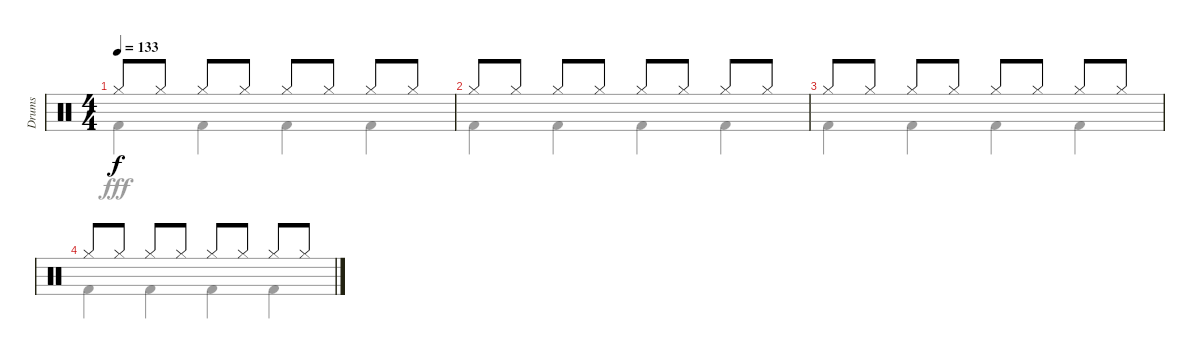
\track ("Drums" "Drums") {instrument percussion}
\staff {score}
\articulation defaults
\voice
\ts (4 4)
\tempo 133
\clef neutral
\ks c "Hi-Hat (closed)".8{dy f} "Hi-Hat (closed)".8 "Hi-Hat (closed)".8 "Hi-Hat (closed)".8 "Hi-Hat (closed)".8 "Hi-Hat (closed)".8 "Hi-Hat (closed)".8 "Hi-Hat (closed)".8
|
"Hi-Hat (closed)".8 "Hi-Hat (closed)".8 "Hi-Hat (closed)".8 "Hi-Hat (closed)".8 "Hi-Hat (closed)".8 "Hi-Hat (closed)".8 "Hi-Hat (closed)".8 "Hi-Hat (closed)".8 |
"Hi-Hat (closed)".8 "Hi-Hat (closed)".8 "Hi-Hat (closed)".8 "Hi-Hat (closed)".8 "Hi-Hat (closed)".8 "Hi-Hat (closed)".8 "Hi-Hat (closed)".8 "Hi-Hat (closed)".8 |
"Hi-Hat (closed)".8 "Hi-Hat (closed)".8 "Hi-Hat (closed)".8 "Hi-Hat (closed)".8 "Hi-Hat (closed)".8 "Hi-Hat (closed)".8 "Hi-Hat (closed)".8 "Hi-Hat (closed)".8
\voice
\clef neutral
\ottava regular
\simile none
\ks c "Kick (hit) 2".4{dy fff} "Kick (hit) 2".4 "Kick (hit) 2".4 "Kick (hit) 2".4
|
"Kick (hit) 2".4 "Kick (hit) 2".4 "Kick (hit) 2".4 "Kick (hit) 2".4 |
"Kick (hit) 2".4 "Kick (hit) 2".4 "Kick (hit) 2".4 "Kick (hit) 2".4 |
"Kick (hit) 2".4 "Kick (hit) 2".4 "Kick (hit) 2".4 "Kick (hit) 2".4
